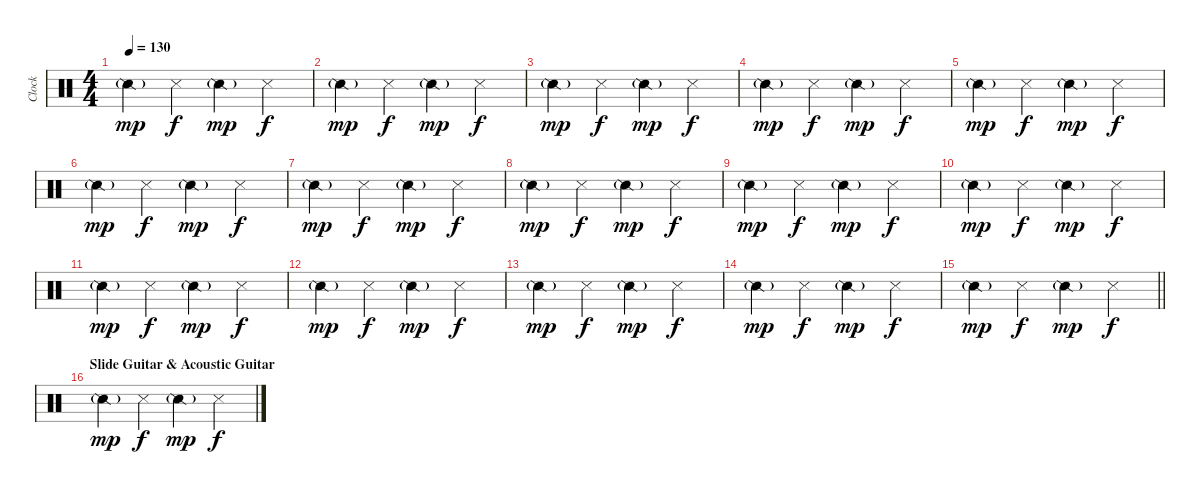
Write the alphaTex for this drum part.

\track ("Clock" "Clock") {instrument percussion}
\staff {score}
\articulation defaults
\ts (4 4)
\tempo 130
\clef neutral
\ks c "Snare (side stick) 2"{g}.4{dy mp} "Metronome (hit)".4{dy f} "Snare (side stick) 2"{g}.4{dy mp} "Metronome (hit)".4{dy f}
|
"Snare (side stick) 2"{g}.4{dy mp} "Metronome (hit)".4{dy f} "Snare (side stick) 2"{g}.4{dy mp} "Metronome (hit)".4{dy f} |
"Snare (side stick) 2"{g}.4{dy mp} "Metronome (hit)".4{dy f} "Snare (side stick) 2"{g}.4{dy mp} "Metronome (hit)".4{dy f} |
"Snare (side stick) 2"{g}.4{dy mp} "Metronome (hit)".4{dy f} "Snare (side stick) 2"{g}.4{dy mp} "Metronome (hit)".4{dy f} |
"Snare (side stick) 2"{g}.4{dy mp} "Metronome (hit)".4{dy f} "Snare (side stick) 2"{g}.4{dy mp} "Metronome (hit)".4{dy f} |
"Snare (side stick) 2"{g}.4{dy mp} "Metronome (hit)".4{dy f} "Snare (side stick) 2"{g}.4{dy mp} "Metronome (hit)".4{dy f} |
"Snare (side stick) 2"{g}.4{dy mp} "Metronome (hit)".4{dy f} "Snare (side stick) 2"{g}.4{dy mp} "Metronome (hit)".4{dy f} |
"Snare (side stick) 2"{g}.4{dy mp} "Metronome (hit)".4{dy f} "Snare (side stick) 2"{g}.4{dy mp} "Metronome (hit)".4{dy f} |
"Snare (side stick) 2"{g}.4{dy mp} "Metronome (hit)".4{dy f} "Snare (side stick) 2"{g}.4{dy mp} "Metronome (hit)".4{dy f} |
"Snare (side stick) 2"{g}.4{dy mp} "Metronome (hit)".4{dy f} "Snare (side stick) 2"{g}.4{dy mp} "Metronome (hit)".4{dy f} |
"Snare (side stick) 2"{g}.4{dy mp} "Metronome (hit)".4{dy f} "Snare (side stick) 2"{g}.4{dy mp} "Metronome (hit)".4{dy f} |
"Snare (side stick) 2"{g}.4{dy mp} "Metronome (hit)".4{dy f} "Snare (side stick) 2"{g}.4{dy mp} "Metronome (hit)".4{dy f} |
"Snare (side stick) 2"{g}.4{dy mp} "Metronome (hit)".4{dy f} "Snare (side stick) 2"{g}.4{dy mp} "Metronome (hit)".4{dy f} |
"Snare (side stick) 2"{g}.4{dy mp} "Metronome (hit)".4{dy f} "Snare (side stick) 2"{g}.4{dy mp} "Metronome (hit)".4{dy f} |
\barLineRight lightlight "Snare (side stick) 2"{g}.4{dy mp} "Metronome (hit)".4{dy f} "Snare (side stick) 2"{g}.4{dy mp} "Metronome (hit)".4{dy f}
|
\section ("" "Slide Guitar & Acoustic Guitar")
"Snare (side stick) 2"{g}.4{dy mp} "Metronome (hit)".4{dy f} "Snare (side stick) 2"{g}.4{dy mp} "Metronome (hit)".4{dy f}
